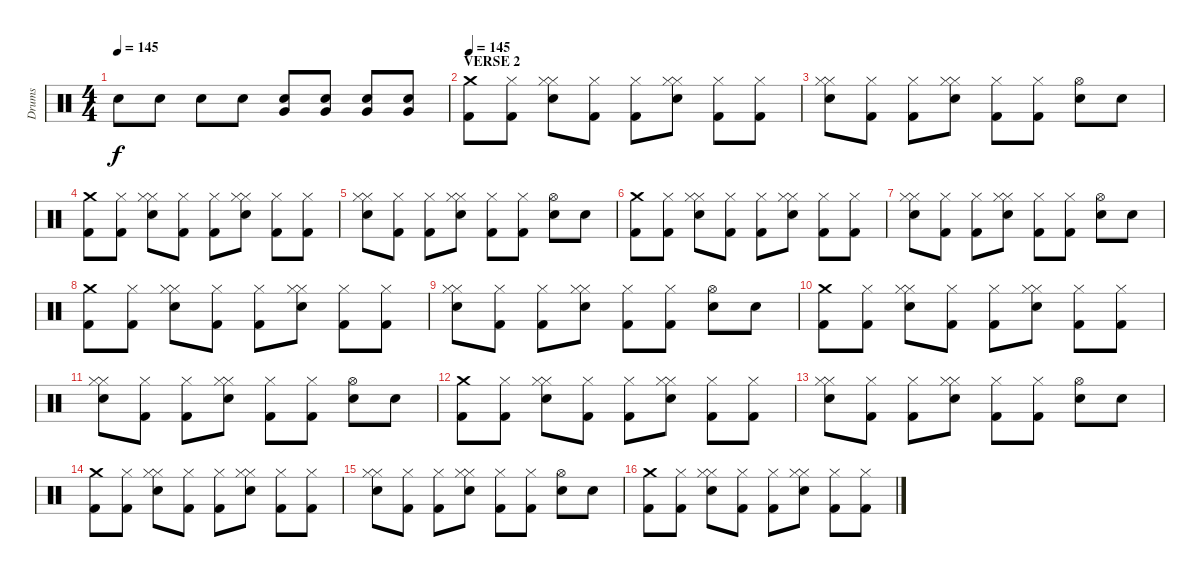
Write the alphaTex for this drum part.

\track ("Drums" "Drums") {instrument percussion}
\staff {score}
\articulation defaults
\ts (4 4)
\tempo 145
\clef neutral
\ks c "Snare (hit) 2".8{dy f} "Snare (hit) 2".8 "Snare (hit) 2".8 "Snare (hit) 2".8
("Snare (hit) 2" "Very Low Tom (hit)").8 ("Snare (hit) 2" "Very Low Tom (hit)").8 ("Snare (hit) 2" "Very Low Tom (hit)").8 ("Snare (hit) 2" "Very Low Tom (hit)").8 |
\section ("" "VERSE 2")
\tempo 145
("Crash medium (hit)" "Kick (hit) 2").8 ("Kick (hit) 2" "Hi-Hat (closed)").8 ("Snare (hit) 2" "Hi-Hat (closed)" "Hi-Hat (closed)").8 ("Kick (hit) 2" "Hi-Hat (closed)").8 ("Kick (hit) 2" "Hi-Hat (closed)").8 ("Snare (hit) 2" "Hi-Hat (closed)" "Hi-Hat (closed)").8 ("Kick (hit) 2" "Hi-Hat (closed)").8 ("Kick (hit) 2" "Hi-Hat (closed)").8 |
("Snare (hit) 2" "Hi-Hat (closed)" "Hi-Hat (closed)").8 ("Kick (hit) 2" "Hi-Hat (closed)").8 ("Kick (hit) 2" "Hi-Hat (closed)").8 ("Snare (hit) 2" "Hi-Hat (closed)" "Hi-Hat (closed)").8 ("Kick (hit) 2" "Hi-Hat (closed)").8 ("Kick (hit) 2" "Hi-Hat (closed)").8 ("Snare (hit) 2" "Hi-Hat (open)").8 "Snare (hit) 2".8 |
("Crash medium (hit)" "Kick (hit) 2").8 ("Kick (hit) 2" "Hi-Hat (closed)").8 ("Snare (hit) 2" "Hi-Hat (closed)" "Hi-Hat (closed)").8 ("Kick (hit) 2" "Hi-Hat (closed)").8 ("Kick (hit) 2" "Hi-Hat (closed)").8 ("Snare (hit) 2" "Hi-Hat (closed)" "Hi-Hat (closed)").8 ("Kick (hit) 2" "Hi-Hat (closed)").8 ("Kick (hit) 2" "Hi-Hat (closed)").8 |
("Snare (hit) 2" "Hi-Hat (closed)" "Hi-Hat (closed)").8 ("Kick (hit) 2" "Hi-Hat (closed)").8 ("Kick (hit) 2" "Hi-Hat (closed)").8 ("Snare (hit) 2" "Hi-Hat (closed)" "Hi-Hat (closed)").8 ("Kick (hit) 2" "Hi-Hat (closed)").8 ("Kick (hit) 2" "Hi-Hat (closed)").8 ("Snare (hit) 2" "Hi-Hat (open)").8 "Snare (hit) 2".8 |
("Crash medium (hit)" "Kick (hit) 2").8 ("Kick (hit) 2" "Hi-Hat (closed)").8 ("Snare (hit) 2" "Hi-Hat (closed)" "Hi-Hat (closed)").8 ("Kick (hit) 2" "Hi-Hat (closed)").8 ("Kick (hit) 2" "Hi-Hat (closed)").8 ("Snare (hit) 2" "Hi-Hat (closed)" "Hi-Hat (closed)").8 ("Kick (hit) 2" "Hi-Hat (closed)").8 ("Kick (hit) 2" "Hi-Hat (closed)").8 |
("Snare (hit) 2" "Hi-Hat (closed)" "Hi-Hat (closed)").8 ("Kick (hit) 2" "Hi-Hat (closed)").8 ("Kick (hit) 2" "Hi-Hat (closed)").8 ("Snare (hit) 2" "Hi-Hat (closed)" "Hi-Hat (closed)").8 ("Kick (hit) 2" "Hi-Hat (closed)").8 ("Kick (hit) 2" "Hi-Hat (closed)").8 ("Snare (hit) 2" "Hi-Hat (open)").8 "Snare (hit) 2".8 |
("Crash medium (hit)" "Kick (hit) 2").8 ("Kick (hit) 2" "Hi-Hat (closed)").8 ("Snare (hit) 2" "Hi-Hat (closed)" "Hi-Hat (closed)").8 ("Kick (hit) 2" "Hi-Hat (closed)").8 ("Kick (hit) 2" "Hi-Hat (closed)").8 ("Snare (hit) 2" "Hi-Hat (closed)" "Hi-Hat (closed)").8 ("Kick (hit) 2" "Hi-Hat (closed)").8 ("Kick (hit) 2" "Hi-Hat (closed)").8 |
("Snare (hit) 2" "Hi-Hat (closed)" "Hi-Hat (closed)").8 ("Kick (hit) 2" "Hi-Hat (closed)").8 ("Kick (hit) 2" "Hi-Hat (closed)").8 ("Snare (hit) 2" "Hi-Hat (closed)" "Hi-Hat (closed)").8 ("Kick (hit) 2" "Hi-Hat (closed)").8 ("Kick (hit) 2" "Hi-Hat (closed)").8 ("Snare (hit) 2" "Hi-Hat (open)").8 "Snare (hit) 2".8 |
("Crash medium (hit)" "Kick (hit) 2").8 ("Kick (hit) 2" "Hi-Hat (closed)").8 ("Snare (hit) 2" "Hi-Hat (closed)" "Hi-Hat (closed)").8 ("Kick (hit) 2" "Hi-Hat (closed)").8 ("Kick (hit) 2" "Hi-Hat (closed)").8 ("Snare (hit) 2" "Hi-Hat (closed)" "Hi-Hat (closed)").8 ("Kick (hit) 2" "Hi-Hat (closed)").8 ("Kick (hit) 2" "Hi-Hat (closed)").8 |
("Snare (hit) 2" "Hi-Hat (closed)" "Hi-Hat (closed)").8 ("Kick (hit) 2" "Hi-Hat (closed)").8 ("Kick (hit) 2" "Hi-Hat (closed)").8 ("Snare (hit) 2" "Hi-Hat (closed)" "Hi-Hat (closed)").8 ("Kick (hit) 2" "Hi-Hat (closed)").8 ("Kick (hit) 2" "Hi-Hat (closed)").8 ("Snare (hit) 2" "Hi-Hat (open)").8 "Snare (hit) 2".8 |
("Crash medium (hit)" "Kick (hit) 2").8 ("Kick (hit) 2" "Hi-Hat (closed)").8 ("Snare (hit) 2" "Hi-Hat (closed)" "Hi-Hat (closed)").8 ("Kick (hit) 2" "Hi-Hat (closed)").8 ("Kick (hit) 2" "Hi-Hat (closed)").8 ("Snare (hit) 2" "Hi-Hat (closed)" "Hi-Hat (closed)").8 ("Kick (hit) 2" "Hi-Hat (closed)").8 ("Kick (hit) 2" "Hi-Hat (closed)").8 |
("Snare (hit) 2" "Hi-Hat (closed)" "Hi-Hat (closed)").8 ("Kick (hit) 2" "Hi-Hat (closed)").8 ("Kick (hit) 2" "Hi-Hat (closed)").8 ("Snare (hit) 2" "Hi-Hat (closed)" "Hi-Hat (closed)").8 ("Kick (hit) 2" "Hi-Hat (closed)").8 ("Kick (hit) 2" "Hi-Hat (closed)").8 ("Snare (hit) 2" "Hi-Hat (open)").8 "Snare (hit) 2".8 |
("Crash medium (hit)" "Kick (hit) 2").8 ("Kick (hit) 2" "Hi-Hat (closed)").8 ("Snare (hit) 2" "Hi-Hat (closed)" "Hi-Hat (closed)").8 ("Kick (hit) 2" "Hi-Hat (closed)").8 ("Kick (hit) 2" "Hi-Hat (closed)").8 ("Snare (hit) 2" "Hi-Hat (closed)" "Hi-Hat (closed)").8 ("Kick (hit) 2" "Hi-Hat (closed)").8 ("Kick (hit) 2" "Hi-Hat (closed)").8 |
("Snare (hit) 2" "Hi-Hat (closed)" "Hi-Hat (closed)").8 ("Kick (hit) 2" "Hi-Hat (closed)").8 ("Kick (hit) 2" "Hi-Hat (closed)").8 ("Snare (hit) 2" "Hi-Hat (closed)" "Hi-Hat (closed)").8 ("Kick (hit) 2" "Hi-Hat (closed)").8 ("Kick (hit) 2" "Hi-Hat (closed)").8 ("Snare (hit) 2" "Hi-Hat (open)").8 "Snare (hit) 2".8 |
("Crash medium (hit)" "Kick (hit) 2").8 ("Kick (hit) 2" "Hi-Hat (closed)").8 ("Snare (hit) 2" "Hi-Hat (closed)" "Hi-Hat (closed)").8 ("Kick (hit) 2" "Hi-Hat (closed)").8 ("Kick (hit) 2" "Hi-Hat (closed)").8 ("Snare (hit) 2" "Hi-Hat (closed)" "Hi-Hat (closed)").8 ("Kick (hit) 2" "Hi-Hat (closed)").8 ("Kick (hit) 2" "Hi-Hat (closed)").8
